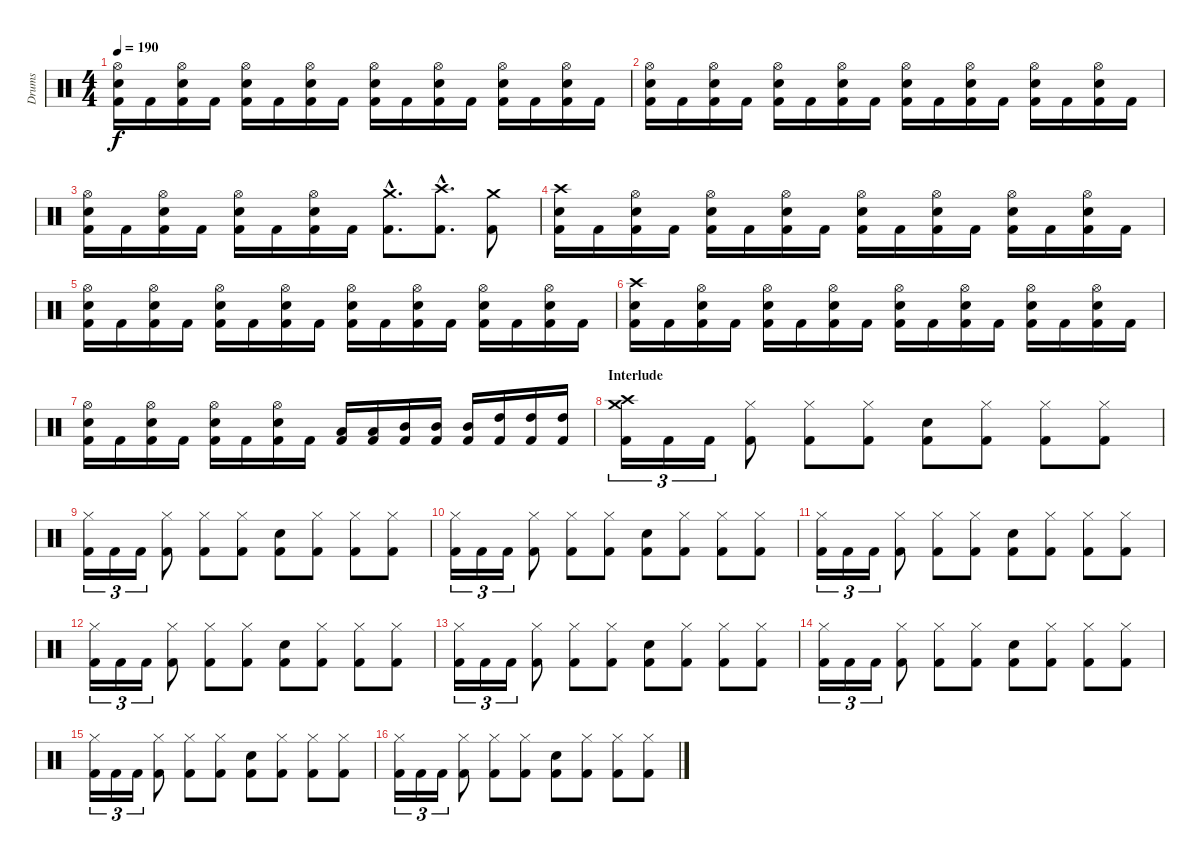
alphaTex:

\track ("Drums" "Drums") {instrument percussion}
\staff {score}
\articulation defaults
\ts (4 4)
\tempo 190
\clef neutral
\ks c
("Kick (hit) 2" "Electric Snare (hit)" "Hi-Hat (open)").16{dy f} "Kick (hit) 2".16 ("Kick (hit) 2" "Electric Snare (hit)" "Hi-Hat (open)").16 "Kick (hit) 2".16 ("Kick (hit) 2" "Electric Snare (hit)" "Hi-Hat (open)").16 "Kick (hit) 2".16 ("Kick (hit) 2" "Electric Snare (hit)" "Hi-Hat (open)").16 "Kick (hit) 2".16 ("Kick (hit) 2" "Electric Snare (hit)" "Hi-Hat (open)").16 "Kick (hit) 2".16 ("Kick (hit) 2" "Electric Snare (hit)" "Hi-Hat (open)").16 "Kick (hit) 2".16 ("Kick (hit) 2" "Electric Snare (hit)" "Hi-Hat (open)").16 "Kick (hit) 2".16 ("Kick (hit) 2" "Electric Snare (hit)" "Hi-Hat (open)").16 "Kick (hit) 2".16 |
("Kick (hit) 2" "Electric Snare (hit)" "Hi-Hat (open)").16 "Kick (hit) 2".16 ("Kick (hit) 2" "Electric Snare (hit)" "Hi-Hat (open)").16 "Kick (hit) 2".16 ("Kick (hit) 2" "Electric Snare (hit)" "Hi-Hat (open)").16 "Kick (hit) 2".16 ("Kick (hit) 2" "Electric Snare (hit)" "Hi-Hat (open)").16 "Kick (hit) 2".16 ("Kick (hit) 2" "Electric Snare (hit)" "Hi-Hat (open)").16 "Kick (hit) 2".16 ("Kick (hit) 2" "Electric Snare (hit)" "Hi-Hat (open)").16 "Kick (hit) 2".16 ("Kick (hit) 2" "Electric Snare (hit)" "Hi-Hat (open)").16 "Kick (hit) 2".16 ("Kick (hit) 2" "Electric Snare (hit)" "Hi-Hat (open)").16 "Kick (hit) 2".16 |
("Kick (hit) 2" "Electric Snare (hit)" "Hi-Hat (open)").16 "Kick (hit) 2".16 ("Kick (hit) 2" "Electric Snare (hit)" "Hi-Hat (open)").16 "Kick (hit) 2".16 ("Kick (hit) 2" "Electric Snare (hit)" "Hi-Hat (open)").16 "Kick (hit) 2".16 ("Kick (hit) 2" "Electric Snare (hit)" "Hi-Hat (open)").16 "Kick (hit) 2".16 ("Kick (hit) 2"{hac} "Crash medium (hit)"{hac}).8{d} ("Kick (hit) 2"{hac} "Crash high (hit)"{hac}).8{d} ("Kick (hit) 2" "Crash medium (hit)").8 |
("Kick (hit) 2" "Electric Snare (hit)" "Crash high (hit)").16 "Kick (hit) 2".16 ("Kick (hit) 2" "Electric Snare (hit)" "Hi-Hat (open)").16 "Kick (hit) 2".16 ("Kick (hit) 2" "Electric Snare (hit)" "Hi-Hat (open)").16 "Kick (hit) 2".16 ("Kick (hit) 2" "Electric Snare (hit)" "Hi-Hat (open)").16 "Kick (hit) 2".16 ("Kick (hit) 2" "Electric Snare (hit)" "Hi-Hat (open)").16 "Kick (hit) 2".16 ("Kick (hit) 2" "Electric Snare (hit)" "Hi-Hat (open)").16 "Kick (hit) 2".16 ("Kick (hit) 2" "Electric Snare (hit)" "Hi-Hat (open)").16 "Kick (hit) 2".16 ("Kick (hit) 2" "Electric Snare (hit)" "Hi-Hat (open)").16 "Kick (hit) 2".16 |
("Kick (hit) 2" "Electric Snare (hit)" "Hi-Hat (open)").16 "Kick (hit) 2".16 ("Kick (hit) 2" "Electric Snare (hit)" "Hi-Hat (open)").16 "Kick (hit) 2".16 ("Kick (hit) 2" "Electric Snare (hit)" "Hi-Hat (open)").16 "Kick (hit) 2".16 ("Kick (hit) 2" "Electric Snare (hit)" "Hi-Hat (open)").16 "Kick (hit) 2".16 ("Kick (hit) 2" "Electric Snare (hit)" "Hi-Hat (open)").16 "Kick (hit) 2".16 ("Kick (hit) 2" "Electric Snare (hit)" "Hi-Hat (open)").16 "Kick (hit) 2".16 ("Kick (hit) 2" "Electric Snare (hit)" "Hi-Hat (open)").16 "Kick (hit) 2".16 ("Kick (hit) 2" "Electric Snare (hit)" "Hi-Hat (open)").16 "Kick (hit) 2".16 |
("Kick (hit) 2" "Electric Snare (hit)" "Crash high (hit)").16 "Kick (hit) 2".16 ("Kick (hit) 2" "Electric Snare (hit)" "Hi-Hat (open)").16 "Kick (hit) 2".16 ("Kick (hit) 2" "Electric Snare (hit)" "Hi-Hat (open)").16 "Kick (hit) 2".16 ("Kick (hit) 2" "Electric Snare (hit)" "Hi-Hat (open)").16 "Kick (hit) 2".16 ("Kick (hit) 2" "Electric Snare (hit)" "Hi-Hat (open)").16 "Kick (hit) 2".16 ("Kick (hit) 2" "Electric Snare (hit)" "Hi-Hat (open)").16 "Kick (hit) 2".16 ("Kick (hit) 2" "Electric Snare (hit)" "Hi-Hat (open)").16 "Kick (hit) 2".16 ("Kick (hit) 2" "Electric Snare (hit)" "Hi-Hat (open)").16 "Kick (hit) 2".16 |
("Kick (hit) 2" "Electric Snare (hit)" "Hi-Hat (open)").16 "Kick (hit) 2".16 ("Kick (hit) 2" "Electric Snare (hit)" "Hi-Hat (open)").16 "Kick (hit) 2".16 ("Kick (hit) 2" "Electric Snare (hit)" "Hi-Hat (open)").16 "Kick (hit) 2".16 ("Kick (hit) 2" "Electric Snare (hit)" "Hi-Hat (open)").16 "Kick (hit) 2".16 ("Kick (hit) 2" "Low Tom (hit)").16 ("Kick (hit) 2" "Low Tom (hit)").16 ("Kick (hit) 2" "Mid Tom (hit)").16 ("Kick (hit) 2" "Mid Tom (hit)").16 ("Kick (hit) 2" "Mid Tom (hit)").16 ("Kick (hit) 2" "High Tom (hit)").16 ("Kick (hit) 2" "High Tom (hit)").16 ("Kick (hit) 2" "High Tom (hit)").16 |
\section ("" "Interlude")
("Kick (hit) 2" "Crash high (hit)" "Crash medium (hit)").16{tu (3 2)} "Kick (hit) 2".16{tu (3 2)} "Kick (hit) 2".16{tu (3 2)} ("Kick (hit) 2" "Hi-Hat (closed)").8 ("Kick (hit) 2" "Hi-Hat (closed)").8 ("Kick (hit) 2" "Hi-Hat (closed)").8 ("Kick (hit) 2" "Electric Snare (hit)").8 ("Kick (hit) 2" "Hi-Hat (closed)").8 ("Kick (hit) 2" "Hi-Hat (closed)").8 ("Kick (hit) 2" "Hi-Hat (closed)").8 |
("Kick (hit) 2" "Hi-Hat (closed)").16{tu (3 2)} "Kick (hit) 2".16{tu (3 2)} "Kick (hit) 2".16{tu (3 2)} ("Kick (hit) 2" "Hi-Hat (closed)").8 ("Kick (hit) 2" "Hi-Hat (closed)").8 ("Kick (hit) 2" "Hi-Hat (closed)").8 ("Kick (hit) 2" "Electric Snare (hit)").8 ("Kick (hit) 2" "Hi-Hat (closed)").8 ("Kick (hit) 2" "Hi-Hat (closed)").8 ("Kick (hit) 2" "Hi-Hat (closed)").8 |
("Kick (hit) 2" "Hi-Hat (closed)").16{tu (3 2)} "Kick (hit) 2".16{tu (3 2)} "Kick (hit) 2".16{tu (3 2)} ("Kick (hit) 2" "Hi-Hat (closed)").8 ("Kick (hit) 2" "Hi-Hat (closed)").8 ("Kick (hit) 2" "Hi-Hat (closed)").8 ("Kick (hit) 2" "Electric Snare (hit)").8 ("Kick (hit) 2" "Hi-Hat (closed)").8 ("Kick (hit) 2" "Hi-Hat (closed)").8 ("Kick (hit) 2" "Hi-Hat (closed)").8 |
("Kick (hit) 2" "Hi-Hat (closed)").16{tu (3 2)} "Kick (hit) 2".16{tu (3 2)} "Kick (hit) 2".16{tu (3 2)} ("Kick (hit) 2" "Hi-Hat (closed)").8 ("Kick (hit) 2" "Hi-Hat (closed)").8 ("Kick (hit) 2" "Hi-Hat (closed)").8 ("Kick (hit) 2" "Electric Snare (hit)").8 ("Kick (hit) 2" "Hi-Hat (closed)").8 ("Kick (hit) 2" "Hi-Hat (closed)").8 ("Kick (hit) 2" "Hi-Hat (closed)").8 |
("Kick (hit) 2" "Hi-Hat (closed)").16{tu (3 2)} "Kick (hit) 2".16{tu (3 2)} "Kick (hit) 2".16{tu (3 2)} ("Kick (hit) 2" "Hi-Hat (closed)").8 ("Kick (hit) 2" "Hi-Hat (closed)").8 ("Kick (hit) 2" "Hi-Hat (closed)").8 ("Kick (hit) 2" "Electric Snare (hit)").8 ("Kick (hit) 2" "Hi-Hat (closed)").8 ("Kick (hit) 2" "Hi-Hat (closed)").8 ("Kick (hit) 2" "Hi-Hat (closed)").8 |
("Kick (hit) 2" "Hi-Hat (closed)").16{tu (3 2)} "Kick (hit) 2".16{tu (3 2)} "Kick (hit) 2".16{tu (3 2)} ("Kick (hit) 2" "Hi-Hat (closed)").8 ("Kick (hit) 2" "Hi-Hat (closed)").8 ("Kick (hit) 2" "Hi-Hat (closed)").8 ("Kick (hit) 2" "Electric Snare (hit)").8 ("Kick (hit) 2" "Hi-Hat (closed)").8 ("Kick (hit) 2" "Hi-Hat (closed)").8 ("Kick (hit) 2" "Hi-Hat (closed)").8 |
("Kick (hit) 2" "Hi-Hat (closed)").16{tu (3 2)} "Kick (hit) 2".16{tu (3 2)} "Kick (hit) 2".16{tu (3 2)} ("Kick (hit) 2" "Hi-Hat (closed)").8 ("Kick (hit) 2" "Hi-Hat (closed)").8 ("Kick (hit) 2" "Hi-Hat (closed)").8 ("Kick (hit) 2" "Electric Snare (hit)").8 ("Kick (hit) 2" "Hi-Hat (closed)").8 ("Kick (hit) 2" "Hi-Hat (closed)").8 ("Kick (hit) 2" "Hi-Hat (closed)").8 |
("Kick (hit) 2" "Hi-Hat (closed)").16{tu (3 2)} "Kick (hit) 2".16{tu (3 2)} "Kick (hit) 2".16{tu (3 2)} ("Kick (hit) 2" "Hi-Hat (closed)").8 ("Kick (hit) 2" "Hi-Hat (closed)").8 ("Kick (hit) 2" "Hi-Hat (closed)").8 ("Kick (hit) 2" "Electric Snare (hit)").8 ("Kick (hit) 2" "Hi-Hat (closed)").8 ("Kick (hit) 2" "Hi-Hat (closed)").8 ("Kick (hit) 2" "Hi-Hat (closed)").8 |
("Kick (hit) 2" "Hi-Hat (closed)").16{tu (3 2)} "Kick (hit) 2".16{tu (3 2)} "Kick (hit) 2".16{tu (3 2)} ("Kick (hit) 2" "Hi-Hat (closed)").8 ("Kick (hit) 2" "Hi-Hat (closed)").8 ("Kick (hit) 2" "Hi-Hat (closed)").8 ("Kick (hit) 2" "Electric Snare (hit)").8 ("Kick (hit) 2" "Hi-Hat (closed)").8 ("Kick (hit) 2" "Hi-Hat (closed)").8 ("Kick (hit) 2" "Hi-Hat (closed)").8
